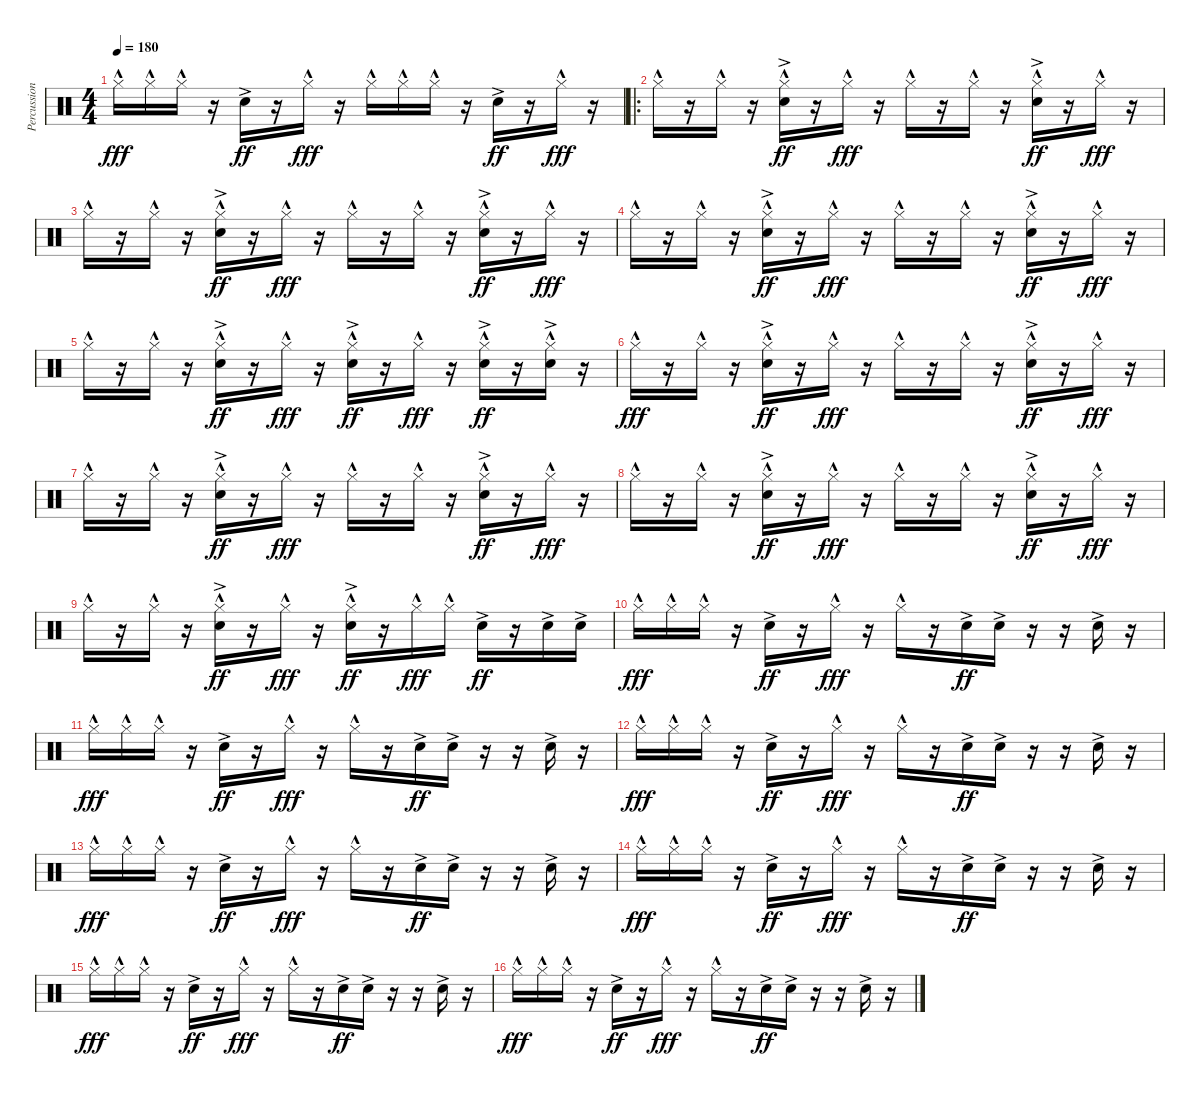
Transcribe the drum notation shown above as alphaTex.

\track ("Percussion" "Percussion") {instrument percussion}
\staff {score}
\articulation defaults
\ts (4 4)
\tempo 180
\clef neutral
\ks c "Hi-Hat (closed)"{hac}.16{dy fff} "Hi-Hat (closed)"{hac}.16 "Hi-Hat (closed)"{hac}.16
r.16 "Snare (hit) 2"{ac}.16{dy ff} r.16 "Hi-Hat (closed)"{hac}.16{dy fff} r.16 "Hi-Hat (closed)"{hac}.16 "Hi-Hat (closed)"{hac}.16 "Hi-Hat (closed)"{hac}.16 r.16 "Snare (hit) 2"{ac}.16{dy ff} r.16 "Hi-Hat (closed)"{hac}.16{dy fff} r.16 |
\ro "Hi-Hat (closed)"{hac}.16
r.16 "Hi-Hat (closed)"{hac}.16 r.16 ("Hi-Hat (closed)"{hac} "Snare (hit) 2"{ac}).16{dy ff} r.16 "Hi-Hat (closed)"{hac}.16{dy fff} r.16 "Hi-Hat (closed)"{hac}.16 r.16 "Hi-Hat (closed)"{hac}.16 r.16 ("Hi-Hat (closed)"{hac} "Snare (hit) 2"{ac}).16{dy ff} r.16 "Hi-Hat (closed)"{hac}.16{dy fff} r.16 |
"Hi-Hat (closed)"{hac}.16 r.16 "Hi-Hat (closed)"{hac}.16 r.16 ("Hi-Hat (closed)"{hac} "Snare (hit) 2"{ac}).16{dy ff} r.16 "Hi-Hat (closed)"{hac}.16{dy fff} r.16 "Hi-Hat (closed)"{hac}.16 r.16 "Hi-Hat (closed)"{hac}.16 r.16 ("Hi-Hat (closed)"{hac} "Snare (hit) 2"{ac}).16{dy ff} r.16 "Hi-Hat (closed)"{hac}.16{dy fff} r.16 |
"Hi-Hat (closed)"{hac}.16 r.16 "Hi-Hat (closed)"{hac}.16 r.16 ("Hi-Hat (closed)"{hac} "Snare (hit) 2"{ac}).16{dy ff} r.16 "Hi-Hat (closed)"{hac}.16{dy fff} r.16 "Hi-Hat (closed)"{hac}.16 r.16 "Hi-Hat (closed)"{hac}.16 r.16 ("Hi-Hat (closed)"{hac} "Snare (hit) 2"{ac}).16{dy ff} r.16 "Hi-Hat (closed)"{hac}.16{dy fff} r.16 |
"Hi-Hat (closed)"{hac}.16 r.16 "Hi-Hat (closed)"{hac}.16 r.16 ("Hi-Hat (closed)"{hac} "Snare (hit) 2"{ac}).16{dy ff} r.16 "Hi-Hat (closed)"{hac}.16{dy fff} r.16 ("Hi-Hat (closed)"{hac} "Snare (hit) 2"{ac}).16{dy ff} r.16 "Hi-Hat (closed)"{hac}.16{dy fff} r.16 ("Hi-Hat (closed)"{hac} "Snare (hit) 2"{ac}).16{dy ff} r.16 ("Hi-Hat (closed)"{hac} "Snare (hit) 2"{ac}).16 r.16 |
"Hi-Hat (closed)"{hac}.16{dy fff} r.16 "Hi-Hat (closed)"{hac}.16 r.16 ("Hi-Hat (closed)"{hac} "Snare (hit) 2"{ac}).16{dy ff} r.16 "Hi-Hat (closed)"{hac}.16{dy fff} r.16 "Hi-Hat (closed)"{hac}.16 r.16 "Hi-Hat (closed)"{hac}.16 r.16 ("Hi-Hat (closed)"{hac} "Snare (hit) 2"{ac}).16{dy ff} r.16 "Hi-Hat (closed)"{hac}.16{dy fff} r.16 |
"Hi-Hat (closed)"{hac}.16 r.16 "Hi-Hat (closed)"{hac}.16 r.16 ("Hi-Hat (closed)"{hac} "Snare (hit) 2"{ac}).16{dy ff} r.16 "Hi-Hat (closed)"{hac}.16{dy fff} r.16 "Hi-Hat (closed)"{hac}.16 r.16 "Hi-Hat (closed)"{hac}.16 r.16 ("Hi-Hat (closed)"{hac} "Snare (hit) 2"{ac}).16{dy ff} r.16 "Hi-Hat (closed)"{hac}.16{dy fff} r.16 |
"Hi-Hat (closed)"{hac}.16 r.16 "Hi-Hat (closed)"{hac}.16 r.16 ("Hi-Hat (closed)"{hac} "Snare (hit) 2"{ac}).16{dy ff} r.16 "Hi-Hat (closed)"{hac}.16{dy fff} r.16 "Hi-Hat (closed)"{hac}.16 r.16 "Hi-Hat (closed)"{hac}.16 r.16 ("Hi-Hat (closed)"{hac} "Snare (hit) 2"{ac}).16{dy ff} r.16 "Hi-Hat (closed)"{hac}.16{dy fff} r.16 |
"Hi-Hat (closed)"{hac}.16 r.16 "Hi-Hat (closed)"{hac}.16 r.16 ("Hi-Hat (closed)"{hac} "Snare (hit) 2"{ac}).16{dy ff} r.16 "Hi-Hat (closed)"{hac}.16{dy fff} r.16 ("Hi-Hat (closed)"{hac} "Snare (hit) 2"{ac}).16{dy ff} r.16 "Hi-Hat (closed)"{hac}.16{dy fff} "Hi-Hat (closed)"{hac}.16 "Snare (hit) 2"{ac}.16{dy ff} r.16 "Snare (hit) 2"{ac}.16 "Snare (hit) 2"{ac}.16 |
"Hi-Hat (closed)"{hac}.16{dy fff} "Hi-Hat (closed)"{hac}.16 "Hi-Hat (closed)"{hac}.16 r.16 "Snare (hit) 2"{ac}.16{dy ff} r.16 "Hi-Hat (closed)"{hac}.16{dy fff} r.16 "Hi-Hat (closed)"{hac}.16 r.16 "Snare (hit) 2"{ac}.16{dy ff} "Snare (hit) 2"{ac}.16 r.16 r.16 "Snare (hit) 2"{ac}.16 r.16 |
"Hi-Hat (closed)"{hac}.16{dy fff} "Hi-Hat (closed)"{hac}.16 "Hi-Hat (closed)"{hac}.16 r.16 "Snare (hit) 2"{ac}.16{dy ff} r.16 "Hi-Hat (closed)"{hac}.16{dy fff} r.16 "Hi-Hat (closed)"{hac}.16 r.16 "Snare (hit) 2"{ac}.16{dy ff} "Snare (hit) 2"{ac}.16 r.16 r.16 "Snare (hit) 2"{ac}.16 r.16 |
"Hi-Hat (closed)"{hac}.16{dy fff} "Hi-Hat (closed)"{hac}.16 "Hi-Hat (closed)"{hac}.16 r.16 "Snare (hit) 2"{ac}.16{dy ff} r.16 "Hi-Hat (closed)"{hac}.16{dy fff} r.16 "Hi-Hat (closed)"{hac}.16 r.16 "Snare (hit) 2"{ac}.16{dy ff} "Snare (hit) 2"{ac}.16 r.16 r.16 "Snare (hit) 2"{ac}.16 r.16 |
"Hi-Hat (closed)"{hac}.16{dy fff} "Hi-Hat (closed)"{hac}.16 "Hi-Hat (closed)"{hac}.16 r.16 "Snare (hit) 2"{ac}.16{dy ff} r.16 "Hi-Hat (closed)"{hac}.16{dy fff} r.16 "Hi-Hat (closed)"{hac}.16 r.16 "Snare (hit) 2"{ac}.16{dy ff} "Snare (hit) 2"{ac}.16 r.16 r.16 "Snare (hit) 2"{ac}.16 r.16 |
"Hi-Hat (closed)"{hac}.16{dy fff} "Hi-Hat (closed)"{hac}.16 "Hi-Hat (closed)"{hac}.16 r.16 "Snare (hit) 2"{ac}.16{dy ff} r.16 "Hi-Hat (closed)"{hac}.16{dy fff} r.16 "Hi-Hat (closed)"{hac}.16 r.16 "Snare (hit) 2"{ac}.16{dy ff} "Snare (hit) 2"{ac}.16 r.16 r.16 "Snare (hit) 2"{ac}.16 r.16 |
"Hi-Hat (closed)"{hac}.16{dy fff} "Hi-Hat (closed)"{hac}.16 "Hi-Hat (closed)"{hac}.16 r.16 "Snare (hit) 2"{ac}.16{dy ff} r.16 "Hi-Hat (closed)"{hac}.16{dy fff} r.16 "Hi-Hat (closed)"{hac}.16 r.16 "Snare (hit) 2"{ac}.16{dy ff} "Snare (hit) 2"{ac}.16 r.16 r.16 "Snare (hit) 2"{ac}.16 r.16 |
"Hi-Hat (closed)"{hac}.16{dy fff} "Hi-Hat (closed)"{hac}.16 "Hi-Hat (closed)"{hac}.16 r.16 "Snare (hit) 2"{ac}.16{dy ff} r.16 "Hi-Hat (closed)"{hac}.16{dy fff} r.16 "Hi-Hat (closed)"{hac}.16 r.16 "Snare (hit) 2"{ac}.16{dy ff} "Snare (hit) 2"{ac}.16 r.16 r.16 "Snare (hit) 2"{ac}.16 r.16
